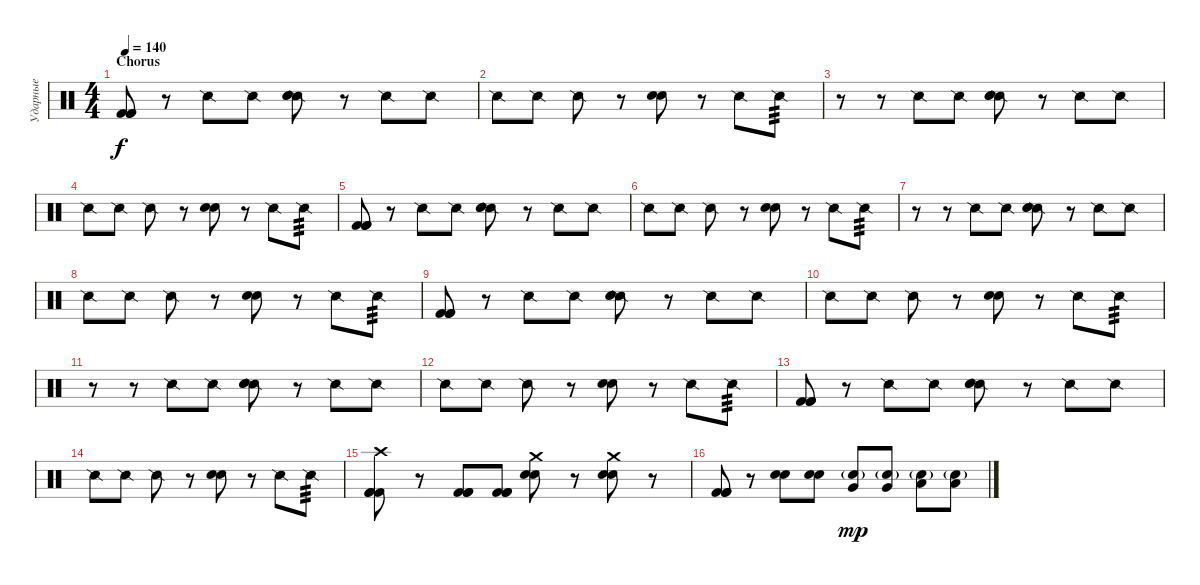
\track ("Ударные" "Ударные") {instrument percussion}
\staff {score}
\articulation defaults
\ts (4 4)
\section ("" "Chorus")
\tempo 140
\clef neutral
\ks c
("Kick (hit) 2" "Kick (hit) 2" "Kick (hit) 2").8{dy f} r.8 "Snare (side stick) 2".8 "Snare (side stick) 2".8 ("Snare (side stick) 2" "Electric Snare (hit)" "Electric Snare (hit)").8 r.8 "Snare (side stick) 2".8 "Snare (side stick) 2".8 |
"Snare (side stick) 2".8 "Snare (side stick) 2".8 "Snare (side stick) 2".8 r.8 ("Electric Snare (hit)" "Electric Snare (hit)").8 r.8 "Snare (side stick) 2".8 "Snare (side stick) 2".8{tp 3} |
r.8 r.8 "Snare (side stick) 2".8 "Snare (side stick) 2".8 ("Snare (side stick) 2" "Electric Snare (hit)" "Electric Snare (hit)").8 r.8 "Snare (side stick) 2".8 "Snare (side stick) 2".8 |
"Snare (side stick) 2".8 "Snare (side stick) 2".8 "Snare (side stick) 2".8 r.8 ("Electric Snare (hit)" "Electric Snare (hit)").8 r.8 "Snare (side stick) 2".8 "Snare (side stick) 2".8{tp 3} |
("Kick (hit) 2" "Kick (hit) 2" "Kick (hit) 2").8 r.8 "Snare (side stick) 2".8 "Snare (side stick) 2".8 ("Snare (side stick) 2" "Electric Snare (hit)" "Electric Snare (hit)").8 r.8 "Snare (side stick) 2".8 "Snare (side stick) 2".8 |
"Snare (side stick) 2".8 "Snare (side stick) 2".8 "Snare (side stick) 2".8 r.8 ("Electric Snare (hit)" "Electric Snare (hit)").8 r.8 "Snare (side stick) 2".8 "Snare (side stick) 2".8{tp 3} |
r.8 r.8 "Snare (side stick) 2".8 "Snare (side stick) 2".8 ("Snare (side stick) 2" "Electric Snare (hit)" "Electric Snare (hit)").8 r.8 "Snare (side stick) 2".8 "Snare (side stick) 2".8 |
"Snare (side stick) 2".8 "Snare (side stick) 2".8 "Snare (side stick) 2".8 r.8 ("Electric Snare (hit)" "Electric Snare (hit)").8 r.8 "Snare (side stick) 2".8 "Snare (side stick) 2".8{tp 3} |
("Kick (hit) 2" "Kick (hit) 2" "Kick (hit) 2").8 r.8 "Snare (side stick) 2".8 "Snare (side stick) 2".8 ("Snare (side stick) 2" "Electric Snare (hit)" "Electric Snare (hit)").8 r.8 "Snare (side stick) 2".8 "Snare (side stick) 2".8 |
"Snare (side stick) 2".8 "Snare (side stick) 2".8 "Snare (side stick) 2".8 r.8 ("Electric Snare (hit)" "Electric Snare (hit)").8 r.8 "Snare (side stick) 2".8 "Snare (side stick) 2".8{tp 3} |
r.8 r.8 "Snare (side stick) 2".8 "Snare (side stick) 2".8 ("Snare (side stick) 2" "Electric Snare (hit)" "Electric Snare (hit)").8 r.8 "Snare (side stick) 2".8 "Snare (side stick) 2".8 |
"Snare (side stick) 2".8 "Snare (side stick) 2".8 "Snare (side stick) 2".8 r.8 ("Electric Snare (hit)" "Electric Snare (hit)").8 r.8 "Snare (side stick) 2".8 "Snare (side stick) 2".8{tp 3} |
("Kick (hit) 2" "Kick (hit) 2" "Kick (hit) 2").8 r.8 "Snare (side stick) 2".8 "Snare (side stick) 2".8 ("Snare (side stick) 2" "Electric Snare (hit)" "Electric Snare (hit)").8 r.8 "Snare (side stick) 2".8 "Snare (side stick) 2".8 |
"Snare (side stick) 2".8 "Snare (side stick) 2".8 "Snare (side stick) 2".8 r.8 ("Electric Snare (hit)" "Electric Snare (hit)").8 r.8 "Snare (side stick) 2".8 "Snare (side stick) 2".8{tp 3} |
("Crash high (hit)" "Kick (hit) 2" "Kick (hit) 2" "Kick (hit) 2").8 r.8 ("Kick (hit) 2" "Kick (hit) 2" "Kick (hit) 2").8 ("Kick (hit) 2" "Kick (hit) 2" "Kick (hit) 2").8 ("Crash medium (hit)" "Electric Snare (hit)" "Electric Snare (hit)").8 r.8 ("Crash medium (hit)" "Electric Snare (hit)" "Electric Snare (hit)").8 r.8 |
("Kick (hit) 2" "Kick (hit) 2" "Kick (hit) 2").8 r.8 ("Electric Snare (hit)" "Electric Snare (hit)").8 ("Electric Snare (hit)" "Electric Snare (hit)").8 ("Very Low Tom (hit)" "Electric Snare (hit)"{g}).8{dy mp} ("Very Low Tom (hit)" "Electric Snare (hit)"{g}).8 ("Low Floor Tom (hit)" "Electric Snare (hit)"{g}).8 ("Low Floor Tom (hit)" "Electric Snare (hit)"{g}).8
